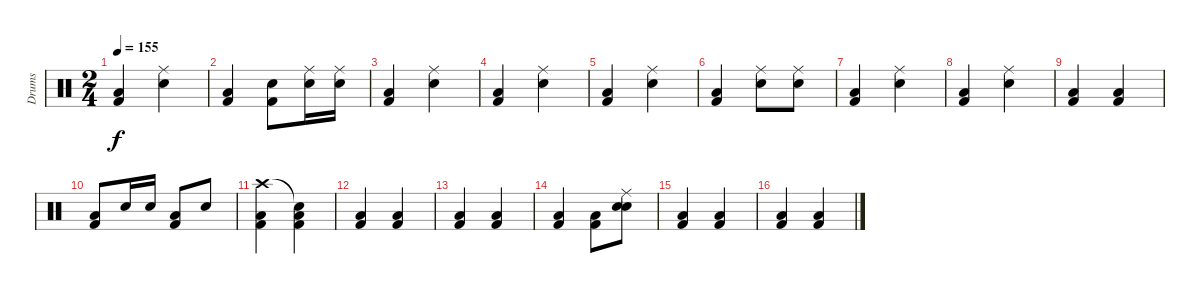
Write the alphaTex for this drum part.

\track ("Drums" "Drums") {instrument percussion}
\staff {score}
\articulation defaults
\ts (2 4)
\tempo 155
\clef neutral
\ks c
("Low Floor Tom (hit)" "Kick (hit) 2").4{dy f} ("Snare (hit) 2" "Ride (middle)").4 |
("Low Floor Tom (hit)" "Kick (hit) 2").4 ("Snare (hit) 2" "Kick (hit) 2").8 ("Snare (hit) 2" "Ride (middle)").16 ("Snare (hit) 2" "Ride (middle)").16 |
("Low Floor Tom (hit)" "Kick (hit) 2").4 ("Snare (hit) 2" "Ride (middle)").4 |
("Low Floor Tom (hit)" "Kick (hit) 2").4 ("Snare (hit) 2" "Ride (middle)").4 |
("Low Floor Tom (hit)" "Kick (hit) 2").4 ("Snare (hit) 2" "Ride (middle)").4 |
("Low Floor Tom (hit)" "Kick (hit) 2").4 ("Snare (hit) 2" "Ride (middle)").8 ("Snare (hit) 2" "Ride (middle)").8 |
("Low Floor Tom (hit)" "Kick (hit) 2").4 ("Snare (hit) 2" "Ride (middle)").4 |
("Low Floor Tom (hit)" "Kick (hit) 2").4 ("Snare (hit) 2" "Ride (middle)").4 |
("Low Floor Tom (hit)" "Kick (hit) 2").4 ("Low Floor Tom (hit)" "Kick (hit) 2").4 |
("Low Floor Tom (hit)" "Kick (hit) 2").8 "Snare (hit) 2".16 "Snare (hit) 2".16 ("Low Floor Tom (hit)" "Kick (hit) 2").8 "Snare (hit) 2".8 |
("Low Floor Tom (hit)" "Kick (hit) 2" "Crash high (hit)").4 ("Low Floor Tom (hit)" "Kick (hit) 2" "Snare (hit)"{t}).4 |
("Low Floor Tom (hit)" "Kick (hit) 2").4 ("Low Floor Tom (hit)" "Kick (hit) 2").4 |
("Low Floor Tom (hit)" "Kick (hit) 2").4 ("Low Floor Tom (hit)" "Kick (hit) 2").4 |
("Low Floor Tom (hit)" "Kick (hit) 2").4 ("Low Floor Tom (hit)" "Kick (hit) 2").8 ("Snare (hit) 2" "Ride (middle)" "Snare (hit) 2").8 |
("Low Floor Tom (hit)" "Kick (hit) 2").4 ("Low Floor Tom (hit)" "Kick (hit) 2").4 |
("Low Floor Tom (hit)" "Kick (hit) 2").4 ("Low Floor Tom (hit)" "Kick (hit) 2").4
